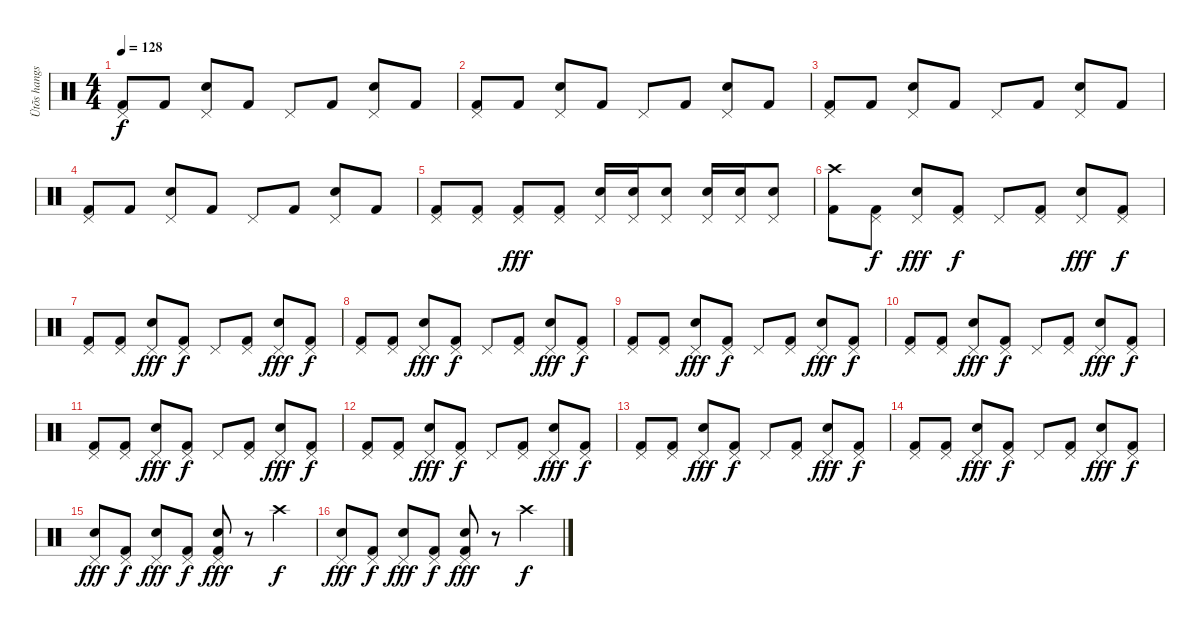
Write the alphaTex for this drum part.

\track ("Ütõs hangszer" "Ütõs hangs") {instrument percussion}
\staff {score}
\articulation defaults
\ts (4 4)
\tempo 128
\clef neutral
\ks c
("Kick (hit) 2" "Pedal Hi-Hat (hit)").8{dy f} "Kick (hit) 2".8 ("Electric Snare (hit)" "Pedal Hi-Hat (hit)").8 "Kick (hit) 2".8 "Pedal Hi-Hat (hit)".8 "Kick (hit) 2".8 ("Electric Snare (hit)" "Pedal Hi-Hat (hit)").8 "Kick (hit) 2".8 |
("Kick (hit) 2" "Pedal Hi-Hat (hit)").8 "Kick (hit) 2".8 ("Electric Snare (hit)" "Pedal Hi-Hat (hit)").8 "Kick (hit) 2".8 "Pedal Hi-Hat (hit)".8 "Kick (hit) 2".8 ("Electric Snare (hit)" "Pedal Hi-Hat (hit)").8 "Kick (hit) 2".8 |
("Kick (hit) 2" "Pedal Hi-Hat (hit)").8 "Kick (hit) 2".8 ("Electric Snare (hit)" "Pedal Hi-Hat (hit)").8 "Kick (hit) 2".8 "Pedal Hi-Hat (hit)".8 "Kick (hit) 2".8 ("Electric Snare (hit)" "Pedal Hi-Hat (hit)").8 "Kick (hit) 2".8 |
("Kick (hit) 2" "Pedal Hi-Hat (hit)").8 "Kick (hit) 2".8 ("Electric Snare (hit)" "Pedal Hi-Hat (hit)").8 "Kick (hit) 2".8 "Pedal Hi-Hat (hit)".8 "Kick (hit) 2".8 ("Electric Snare (hit)" "Pedal Hi-Hat (hit)").8 "Kick (hit) 2".8 |
("Kick (hit) 2" "Pedal Hi-Hat (hit)").8 ("Kick (hit) 2" "Pedal Hi-Hat (hit)").8 ("Kick (hit) 2" "Pedal Hi-Hat (hit)").8{dy fff} ("Kick (hit) 2" "Pedal Hi-Hat (hit)").8 ("Electric Snare (hit)" "Pedal Hi-Hat (hit)").16 ("Electric Snare (hit)" "Pedal Hi-Hat (hit)").16 ("Electric Snare (hit)" "Pedal Hi-Hat (hit)").8 ("Electric Snare (hit)" "Pedal Hi-Hat (hit)").16 ("Electric Snare (hit)" "Pedal Hi-Hat (hit)").16 ("Electric Snare (hit)" "Pedal Hi-Hat (hit)").8 |
("Kick (hit) 2" "Crash high (hit)").8 ("Kick (hit) 2" "Pedal Hi-Hat (hit)").8{dy f} ("Electric Snare (hit)" "Pedal Hi-Hat (hit)").8{dy fff} ("Kick (hit) 2" "Pedal Hi-Hat (hit)").8{dy f} "Pedal Hi-Hat (hit)".8 ("Kick (hit) 2" "Pedal Hi-Hat (hit)").8 ("Electric Snare (hit)" "Pedal Hi-Hat (hit)").8{dy fff} ("Kick (hit) 2" "Pedal Hi-Hat (hit)").8{dy f} |
("Kick (hit) 2" "Pedal Hi-Hat (hit)").8 ("Kick (hit) 2" "Pedal Hi-Hat (hit)").8 ("Electric Snare (hit)" "Pedal Hi-Hat (hit)").8{dy fff} ("Kick (hit) 2" "Pedal Hi-Hat (hit)").8{dy f} "Pedal Hi-Hat (hit)".8 ("Kick (hit) 2" "Pedal Hi-Hat (hit)").8 ("Electric Snare (hit)" "Pedal Hi-Hat (hit)").8{dy fff} ("Kick (hit) 2" "Pedal Hi-Hat (hit)").8{dy f} |
("Kick (hit) 2" "Pedal Hi-Hat (hit)").8 ("Kick (hit) 2" "Pedal Hi-Hat (hit)").8 ("Electric Snare (hit)" "Pedal Hi-Hat (hit)").8{dy fff} ("Kick (hit) 2" "Pedal Hi-Hat (hit)").8{dy f} "Pedal Hi-Hat (hit)".8 ("Kick (hit) 2" "Pedal Hi-Hat (hit)").8 ("Electric Snare (hit)" "Pedal Hi-Hat (hit)").8{dy fff} ("Kick (hit) 2" "Pedal Hi-Hat (hit)").8{dy f} |
("Kick (hit) 2" "Pedal Hi-Hat (hit)").8 ("Kick (hit) 2" "Pedal Hi-Hat (hit)").8 ("Electric Snare (hit)" "Pedal Hi-Hat (hit)").8{dy fff} ("Kick (hit) 2" "Pedal Hi-Hat (hit)").8{dy f} "Pedal Hi-Hat (hit)".8 ("Kick (hit) 2" "Pedal Hi-Hat (hit)").8 ("Electric Snare (hit)" "Pedal Hi-Hat (hit)").8{dy fff} ("Kick (hit) 2" "Pedal Hi-Hat (hit)").8{dy f} |
("Kick (hit) 2" "Pedal Hi-Hat (hit)").8 ("Kick (hit) 2" "Pedal Hi-Hat (hit)").8 ("Electric Snare (hit)" "Pedal Hi-Hat (hit)").8{dy fff} ("Kick (hit) 2" "Pedal Hi-Hat (hit)").8{dy f} "Pedal Hi-Hat (hit)".8 ("Kick (hit) 2" "Pedal Hi-Hat (hit)").8 ("Electric Snare (hit)" "Pedal Hi-Hat (hit)").8{dy fff} ("Kick (hit) 2" "Pedal Hi-Hat (hit)").8{dy f} |
("Kick (hit) 2" "Pedal Hi-Hat (hit)").8 ("Kick (hit) 2" "Pedal Hi-Hat (hit)").8 ("Electric Snare (hit)" "Pedal Hi-Hat (hit)").8{dy fff} ("Kick (hit) 2" "Pedal Hi-Hat (hit)").8{dy f} "Pedal Hi-Hat (hit)".8 ("Kick (hit) 2" "Pedal Hi-Hat (hit)").8 ("Electric Snare (hit)" "Pedal Hi-Hat (hit)").8{dy fff} ("Kick (hit) 2" "Pedal Hi-Hat (hit)").8{dy f} |
("Kick (hit) 2" "Pedal Hi-Hat (hit)").8 ("Kick (hit) 2" "Pedal Hi-Hat (hit)").8 ("Electric Snare (hit)" "Pedal Hi-Hat (hit)").8{dy fff} ("Kick (hit) 2" "Pedal Hi-Hat (hit)").8{dy f} "Pedal Hi-Hat (hit)".8 ("Kick (hit) 2" "Pedal Hi-Hat (hit)").8 ("Electric Snare (hit)" "Pedal Hi-Hat (hit)").8{dy fff} ("Kick (hit) 2" "Pedal Hi-Hat (hit)").8{dy f} |
("Kick (hit) 2" "Pedal Hi-Hat (hit)").8 ("Kick (hit) 2" "Pedal Hi-Hat (hit)").8 ("Electric Snare (hit)" "Pedal Hi-Hat (hit)").8{dy fff} ("Kick (hit) 2" "Pedal Hi-Hat (hit)").8{dy f} "Pedal Hi-Hat (hit)".8 ("Kick (hit) 2" "Pedal Hi-Hat (hit)").8 ("Electric Snare (hit)" "Pedal Hi-Hat (hit)").8{dy fff} ("Kick (hit) 2" "Pedal Hi-Hat (hit)").8{dy f} |
("Kick (hit) 2" "Pedal Hi-Hat (hit)").8 ("Kick (hit) 2" "Pedal Hi-Hat (hit)").8 ("Electric Snare (hit)" "Pedal Hi-Hat (hit)").8{dy fff} ("Kick (hit) 2" "Pedal Hi-Hat (hit)").8{dy f} "Pedal Hi-Hat (hit)".8 ("Kick (hit) 2" "Pedal Hi-Hat (hit)").8 ("Electric Snare (hit)" "Pedal Hi-Hat (hit)").8{dy fff} ("Kick (hit) 2" "Pedal Hi-Hat (hit)").8{dy f} |
("Electric Snare (hit)" "Pedal Hi-Hat (hit)").8{dy fff} ("Kick (hit) 2" "Pedal Hi-Hat (hit)").8{dy f} ("Electric Snare (hit)" "Pedal Hi-Hat (hit)").8{dy fff} ("Kick (hit) 2" "Pedal Hi-Hat (hit)").8{dy f} ("Electric Snare (hit)" "Kick (hit) 2" "Pedal Hi-Hat (hit)").8{dy fff} r.8 "Crash high (hit)".4{dy f} |
("Electric Snare (hit)" "Pedal Hi-Hat (hit)").8{dy fff} ("Kick (hit) 2" "Pedal Hi-Hat (hit)").8{dy f} ("Electric Snare (hit)" "Pedal Hi-Hat (hit)").8{dy fff} ("Kick (hit) 2" "Pedal Hi-Hat (hit)").8{dy f} ("Electric Snare (hit)" "Kick (hit) 2" "Pedal Hi-Hat (hit)").8{dy fff} r.8 "Crash high (hit)".4{dy f}
